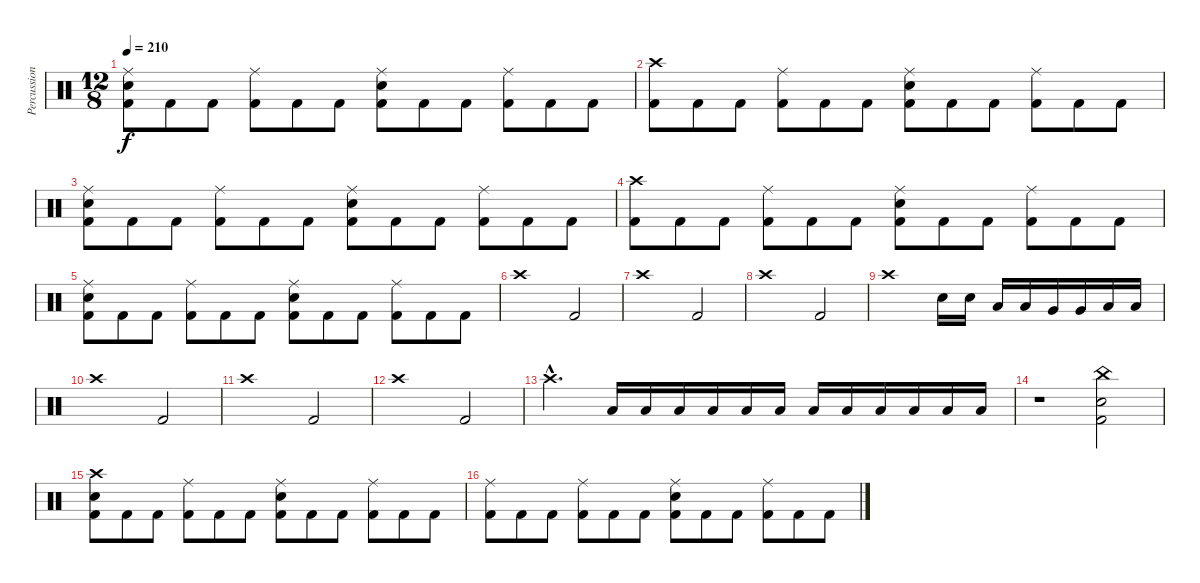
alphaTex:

\track ("Percussion" "Percussion") {instrument percussion}
\staff {score}
\articulation defaults
\ts (12 8)
\tempo 210
\clef neutral
\ks c
("Ride (middle)" "Snare (hit) 2" "Kick (hit) 2").8{dy f} "Kick (hit) 2".8 "Kick (hit) 2".8 ("Ride (middle)" "Kick (hit) 2").8 "Kick (hit) 2".8 "Kick (hit) 2".8 ("Ride (middle)" "Snare (hit) 2" "Kick (hit) 2").8 "Kick (hit) 2".8 "Kick (hit) 2".8 ("Ride (middle)" "Kick (hit) 2").8 "Kick (hit) 2".8 "Kick (hit) 2".8 |
("Crash high (hit)" "Kick (hit) 2").8 "Kick (hit) 2".8 "Kick (hit) 2".8 ("Ride (middle)" "Kick (hit) 2").8 "Kick (hit) 2".8 "Kick (hit) 2".8 ("Ride (middle)" "Snare (hit) 2" "Kick (hit) 2").8 "Kick (hit) 2".8 "Kick (hit) 2".8 ("Ride (middle)" "Kick (hit) 2").8 "Kick (hit) 2".8 "Kick (hit) 2".8 |
("Ride (middle)" "Snare (hit) 2" "Kick (hit) 2").8 "Kick (hit) 2".8 "Kick (hit) 2".8 ("Ride (middle)" "Kick (hit) 2").8 "Kick (hit) 2".8 "Kick (hit) 2".8 ("Ride (middle)" "Snare (hit) 2" "Kick (hit) 2").8 "Kick (hit) 2".8 "Kick (hit) 2".8 ("Ride (middle)" "Kick (hit) 2").8 "Kick (hit) 2".8 "Kick (hit) 2".8 |
("Crash high (hit)" "Kick (hit) 2").8 "Kick (hit) 2".8 "Kick (hit) 2".8 ("Ride (middle)" "Kick (hit) 2").8 "Kick (hit) 2".8 "Kick (hit) 2".8 ("Ride (middle)" "Snare (hit) 2" "Kick (hit) 2").8 "Kick (hit) 2".8 "Kick (hit) 2".8 ("Ride (middle)" "Kick (hit) 2").8 "Kick (hit) 2".8 "Kick (hit) 2".8 |
("Ride (middle)" "Snare (hit) 2" "Kick (hit) 2").8 "Kick (hit) 2".8 "Kick (hit) 2".8 ("Ride (middle)" "Kick (hit) 2").8 "Kick (hit) 2".8 "Kick (hit) 2".8 ("Ride (middle)" "Snare (hit) 2" "Kick (hit) 2").8 "Kick (hit) 2".8 "Kick (hit) 2".8 ("Ride (middle)" "Kick (hit) 2").8 "Kick (hit) 2".8 "Kick (hit) 2".8 |
"Crash high (hit)".1 "Kick (hit) 2".2 |
"Crash high (hit)".1 "Kick (hit) 2".2 |
"Crash high (hit)".1 "Kick (hit) 2".2 |
"Crash high (hit)".1 "Snare (hit) 2".16 "Snare (hit) 2".16 "Low Tom (hit)".16 "Low Tom (hit)".16 "Very Low Tom (hit)".16 "Very Low Tom (hit)".16 "Low Floor Tom (hit)".16 "Low Floor Tom (hit)".16 |
"Crash high (hit)".1 "Kick (hit) 2".2 |
"Crash high (hit)".1 "Kick (hit) 2".2 |
"Crash high (hit)".1 "Kick (hit) 2".2 |
"Crash high (hit)"{hac}.2{d} "Low Floor Tom (hit)".16 "Low Floor Tom (hit)".16 "Low Floor Tom (hit)".16 "Low Floor Tom (hit)".16 "Low Floor Tom (hit)".16 "Low Floor Tom (hit)".16 "Low Floor Tom (hit)".16 "Low Floor Tom (hit)".16 "Low Floor Tom (hit)".16 "Low Floor Tom (hit)".16 "Low Floor Tom (hit)".16 "Low Floor Tom (hit)".16 |
r.1 ("China (hit)" "Snare (hit) 2" "Kick (hit) 2").2 |
("Crash high (hit)" "Snare (hit) 2" "Kick (hit) 2").8 "Kick (hit) 2".8 "Kick (hit) 2".8 ("Ride (middle)" "Kick (hit) 2").8 "Kick (hit) 2".8 "Kick (hit) 2".8 ("Ride (middle)" "Snare (hit) 2" "Kick (hit) 2").8 "Kick (hit) 2".8 "Kick (hit) 2".8 ("Ride (middle)" "Kick (hit) 2").8 "Kick (hit) 2".8 "Kick (hit) 2".8 |
("Ride (middle)" "Kick (hit) 2").8 "Kick (hit) 2".8 "Kick (hit) 2".8 ("Ride (middle)" "Kick (hit) 2").8 "Kick (hit) 2".8 "Kick (hit) 2".8 ("Ride (middle)" "Snare (hit) 2" "Kick (hit) 2").8 "Kick (hit) 2".8 "Kick (hit) 2".8 ("Ride (middle)" "Kick (hit) 2").8 "Kick (hit) 2".8 "Kick (hit) 2".8
